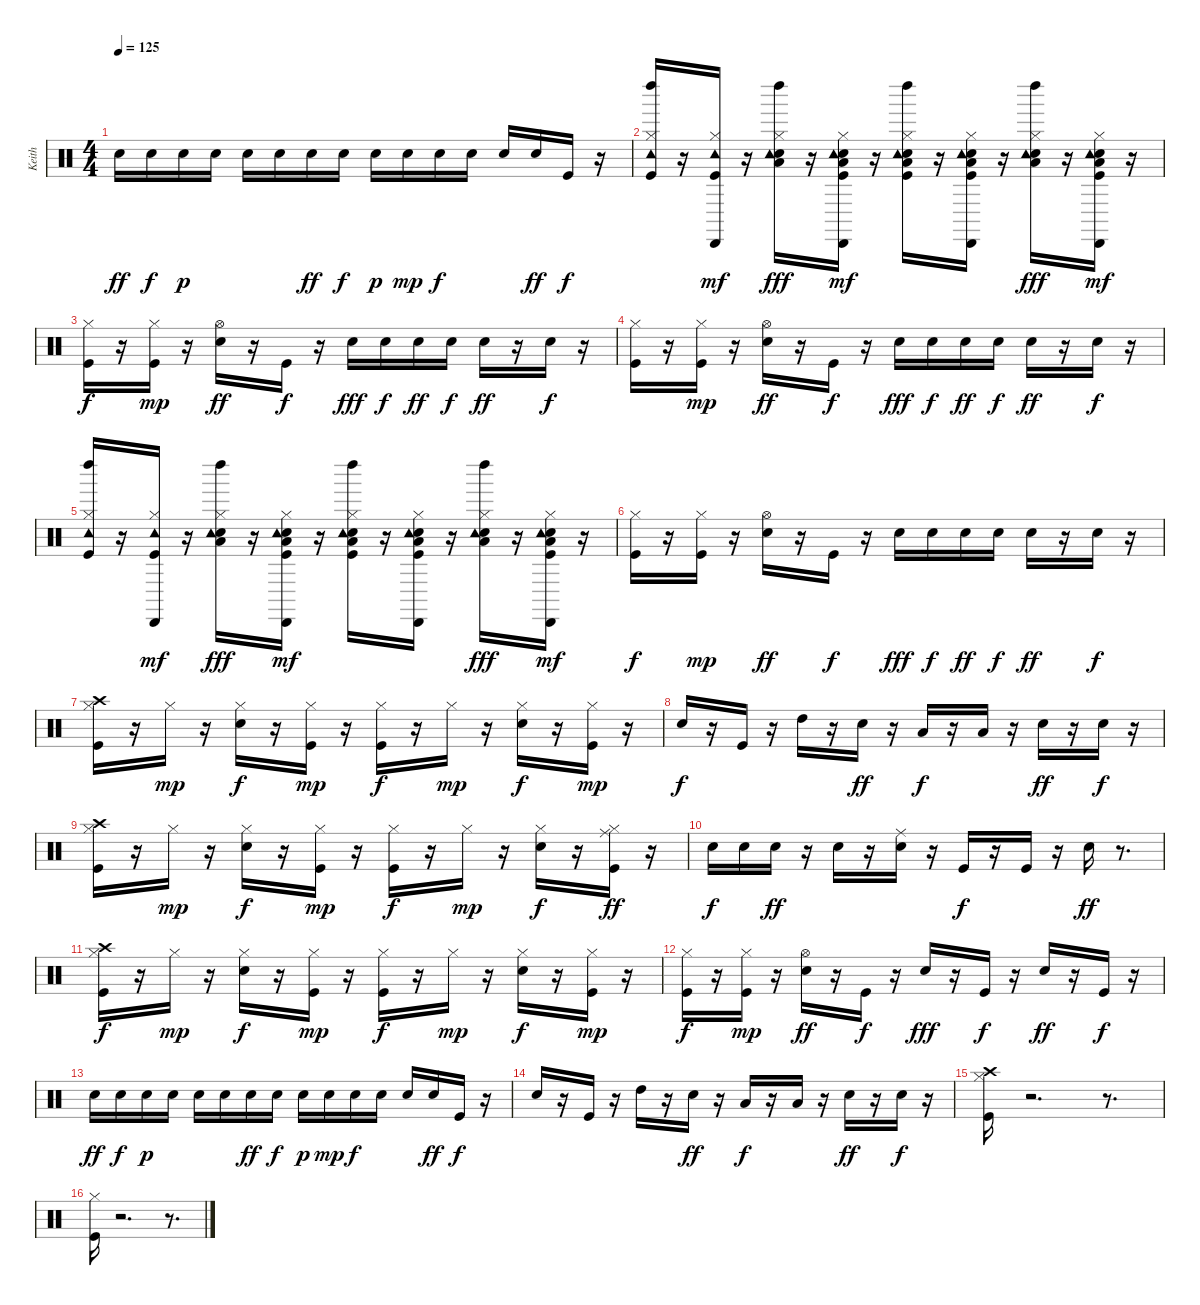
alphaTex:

\track ("Keith" "Keith") {instrument percussion}
\staff {score}
\articulation defaults
\ts (4 4)
\tempo 125
\clef neutral
\ks c "Snare (hit) 2".16{dy ff} "Snare (hit) 2".16{dy f} "Snare (hit) 2".16{dy p} "Snare (hit) 2".16 "Snare (hit) 2".16 "Snare (hit) 2".16 "Snare (hit) 2".16{dy ff} "Snare (hit) 2".16{dy f} "Snare (hit) 2".16{dy p} "Snare (hit) 2".16{dy mp} "Snare (hit) 2".16{dy f} "Snare (hit) 2".16 "Snare (hit) 2".16 "Snare (hit) 2".16{dy ff} "Kick (hit)".16{dy f}
r.16 |
("Kick (hit)" "Hi-Hat (closed)" "Tambourine (hit)" "Left Maraca (hit)").16 r.16 ("Kick (hit)" "Hi-Hat (closed)" "Tambourine (hit)" "Cabasa (hit)").16{dy mf} r.16 ("Snare (hit) 2" "Hi-Hat (closed)" "Low Floor Tom (hit)" "Tambourine (hit)" "Left Maraca (hit)").16{dy fff} r.16 ("Kick (hit)" "Snare (hit) 2" "Hi-Hat (closed)" "Low Floor Tom (hit)" "Tambourine (hit)" "Cabasa (hit)").16{dy mf} r.16 ("Kick (hit)" "Snare (hit) 2" "Hi-Hat (closed)" "Low Floor Tom (hit)" "Tambourine (hit)" "Left Maraca (hit)").16 r.16 ("Kick (hit)" "Snare (hit) 2" "Hi-Hat (closed)" "Low Floor Tom (hit)" "Tambourine (hit)" "Cabasa (hit)").16 r.16 ("Snare (hit) 2" "Hi-Hat (closed)" "Low Floor Tom (hit)" "Tambourine (hit)" "Left Maraca (hit)").16{dy fff} r.16 ("Kick (hit)" "Snare (hit) 2" "Hi-Hat (closed)" "Low Floor Tom (hit)" "Tambourine (hit)" "Cabasa (hit)").16{dy mf} r.16 |
("Kick (hit)" "Hi-Hat (closed)").16{dy f} r.16 ("Kick (hit)" "Hi-Hat (closed)").16{dy mp} r.16 ("Snare (hit) 2" "Hi-Hat (open)").16{dy ff} r.16 "Kick (hit)".16{dy f} r.16 "Snare (hit) 2".16{dy fff} "Snare (hit) 2".16{dy f} "Snare (hit) 2".16{dy ff} "Snare (hit) 2".16{dy f} "Snare (hit) 2".16{dy ff} r.16 "Snare (hit) 2".16{dy f} r.16 |
("Kick (hit)" "Hi-Hat (closed)").16 r.16 ("Kick (hit)" "Hi-Hat (closed)").16{dy mp} r.16 ("Snare (hit) 2" "Hi-Hat (open)").16{dy ff} r.16 "Kick (hit)".16{dy f} r.16 "Snare (hit) 2".16{dy fff} "Snare (hit) 2".16{dy f} "Snare (hit) 2".16{dy ff} "Snare (hit) 2".16{dy f} "Snare (hit) 2".16{dy ff} r.16 "Snare (hit) 2".16{dy f} r.16 |
("Kick (hit)" "Hi-Hat (closed)" "Tambourine (hit)" "Left Maraca (hit)").16 r.16 ("Kick (hit)" "Hi-Hat (closed)" "Tambourine (hit)" "Cabasa (hit)").16{dy mf} r.16 ("Snare (hit) 2" "Hi-Hat (closed)" "Low Floor Tom (hit)" "Tambourine (hit)" "Left Maraca (hit)").16{dy fff} r.16 ("Kick (hit)" "Snare (hit) 2" "Hi-Hat (closed)" "Low Floor Tom (hit)" "Tambourine (hit)" "Cabasa (hit)").16{dy mf} r.16 ("Kick (hit)" "Snare (hit) 2" "Hi-Hat (closed)" "Low Floor Tom (hit)" "Tambourine (hit)" "Left Maraca (hit)").16 r.16 ("Kick (hit)" "Snare (hit) 2" "Hi-Hat (closed)" "Low Floor Tom (hit)" "Tambourine (hit)" "Cabasa (hit)").16 r.16 ("Snare (hit) 2" "Hi-Hat (closed)" "Low Floor Tom (hit)" "Tambourine (hit)" "Left Maraca (hit)").16{dy fff} r.16 ("Kick (hit)" "Snare (hit) 2" "Hi-Hat (closed)" "Low Floor Tom (hit)" "Tambourine (hit)" "Cabasa (hit)").16{dy mf} r.16 |
("Kick (hit)" "Hi-Hat (closed)").16{dy f} r.16 ("Kick (hit)" "Hi-Hat (closed)").16{dy mp} r.16 ("Snare (hit) 2" "Hi-Hat (open)").16{dy ff} r.16 "Kick (hit)".16{dy f} r.16 "Snare (hit) 2".16{dy fff} "Snare (hit) 2".16{dy f} "Snare (hit) 2".16{dy ff} "Snare (hit) 2".16{dy f} "Snare (hit) 2".16{dy ff} r.16 "Snare (hit) 2".16{dy f} r.16 |
("Kick (hit)" "Hi-Hat (closed)" "Crash high (hit)").16 r.16 "Hi-Hat (closed)".16{dy mp} r.16 ("Snare (hit) 2" "Hi-Hat (closed)").16{dy f} r.16 ("Kick (hit)" "Hi-Hat (closed)").16{dy mp} r.16 ("Kick (hit)" "Hi-Hat (closed)").16{dy f} r.16 "Hi-Hat (closed)".16{dy mp} r.16 ("Snare (hit) 2" "Hi-Hat (closed)").16{dy f} r.16 ("Kick (hit)" "Hi-Hat (closed)").16{dy mp} r.16 |
"Snare (hit) 2".16{dy f} r.16 "Kick (hit)".16 r.16 "High Tom (hit)".16 r.16 "Snare (hit) 2".16{dy ff} r.16 "Low Tom (hit)".16{dy f} r.16 "Low Tom (hit)".16 r.16 "Snare (hit) 2".16{dy ff} r.16 "Snare (hit) 2".16{dy f} r.16 |
("Kick (hit)" "Hi-Hat (closed)" "Crash high (hit)").16 r.16 "Hi-Hat (closed)".16{dy mp} r.16 ("Snare (hit) 2" "Hi-Hat (closed)").16{dy f} r.16 ("Kick (hit)" "Hi-Hat (closed)").16{dy mp} r.16 ("Kick (hit)" "Hi-Hat (closed)").16{dy f} r.16 "Hi-Hat (closed)".16{dy mp} r.16 ("Snare (hit) 2" "Hi-Hat (closed)").16{dy f} r.16 ("Kick (hit)" "Hi-Hat (closed)" "Ride (middle)").16{dy ff} r.16 |
"Snare (hit) 2".16{dy f} "Snare (hit) 2".16 "Snare (hit) 2".16{dy ff} r.16 "Snare (hit) 2".16 r.16 ("Snare (hit) 2" "Ride (middle)").16 r.16 "Kick (hit)".16{dy f} r.16 "Kick (hit)".16 r.16 "Snare (hit) 2".16{dy ff} r.8{d} |
("Kick (hit)" "Hi-Hat (closed)" "Crash high (hit)").16{dy f} r.16 "Hi-Hat (closed)".16{dy mp} r.16 ("Snare (hit) 2" "Hi-Hat (closed)").16{dy f} r.16 ("Kick (hit)" "Hi-Hat (closed)").16{dy mp} r.16 ("Kick (hit)" "Hi-Hat (closed)").16{dy f} r.16 "Hi-Hat (closed)".16{dy mp} r.16 ("Snare (hit) 2" "Hi-Hat (closed)").16{dy f} r.16 ("Kick (hit)" "Hi-Hat (closed)").16{dy mp} r.16 |
("Kick (hit)" "Hi-Hat (closed)").16{dy f} r.16 ("Kick (hit)" "Hi-Hat (closed)").16{dy mp} r.16 ("Snare (hit) 2" "Hi-Hat (open)").16{dy ff} r.16 "Kick (hit)".16{dy f} r.16 "Snare (hit) 2".16{dy fff} r.16 "Kick (hit)".16{dy f} r.16 "Snare (hit) 2".16{dy ff} r.16 "Kick (hit)".16{dy f} r.16 |
"Snare (hit) 2".16{dy ff} "Snare (hit) 2".16{dy f} "Snare (hit) 2".16{dy p} "Snare (hit) 2".16 "Snare (hit) 2".16 "Snare (hit) 2".16 "Snare (hit) 2".16{dy ff} "Snare (hit) 2".16{dy f} "Snare (hit) 2".16{dy p} "Snare (hit) 2".16{dy mp} "Snare (hit) 2".16{dy f} "Snare (hit) 2".16 "Snare (hit) 2".16 "Snare (hit) 2".16{dy ff} "Kick (hit)".16{dy f} r.16 |
"Snare (hit) 2".16 r.16 "Kick (hit)".16 r.16 "High Tom (hit)".16 r.16 "Snare (hit) 2".16{dy ff} r.16 "Low Tom (hit)".16{dy f} r.16 "Low Tom (hit)".16 r.16 "Snare (hit) 2".16{dy ff} r.16 "Snare (hit) 2".16{dy f} r.16 |
("Kick (hit)" "Hi-Hat (closed)" "Crash high (hit)").16 r.2{d} r.8{d} |
("Kick (hit)" "Hi-Hat (closed)").16 r.2{d} r.8{d}
